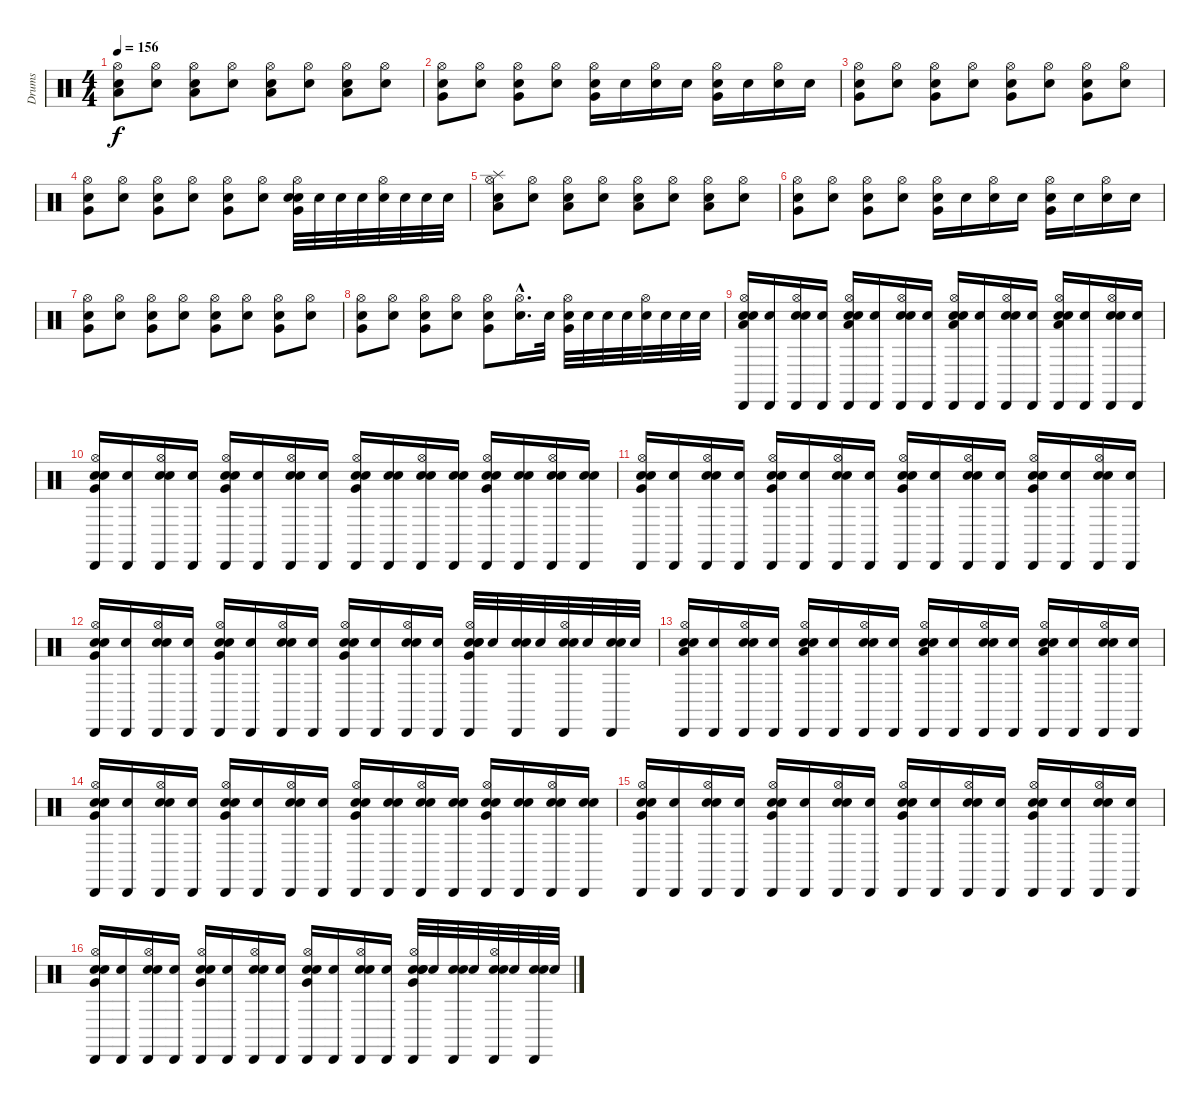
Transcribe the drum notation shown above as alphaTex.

\track ("Drums" "Drums") {instrument percussion}
\staff {score}
\articulation defaults
\ts (4 4)
\tempo 156
\clef neutral
\ks c
("Electric Snare (hit)" "Hi-Hat (open)" "Low Tom (hit)").8{dy f} ("Hi-Hat (open)" "Electric Snare (hit)").8 ("Electric Snare (hit)" "Hi-Hat (open)" "Low Tom (hit)").8 ("Hi-Hat (open)" "Electric Snare (hit)").8 ("Electric Snare (hit)" "Hi-Hat (open)" "Low Tom (hit)").8 ("Hi-Hat (open)" "Electric Snare (hit)").8 ("Electric Snare (hit)" "Hi-Hat (open)" "Low Tom (hit)").8 ("Hi-Hat (open)" "Electric Snare (hit)").8 |
("Very Low Tom (hit)" "Electric Snare (hit)" "Hi-Hat (open)").8 ("Electric Snare (hit)" "Hi-Hat (open)").8 ("Very Low Tom (hit)" "Electric Snare (hit)" "Hi-Hat (open)").8 ("Electric Snare (hit)" "Hi-Hat (open)").8 ("Very Low Tom (hit)" "Electric Snare (hit)" "Hi-Hat (open)").16 "Electric Snare (hit)".16 ("Electric Snare (hit)" "Hi-Hat (open)").16 "Electric Snare (hit)".16 ("Very Low Tom (hit)" "Electric Snare (hit)" "Hi-Hat (open)").16 "Electric Snare (hit)".16 ("Electric Snare (hit)" "Hi-Hat (open)").16 "Electric Snare (hit)".16 |
("Very Low Tom (hit)" "Electric Snare (hit)" "Hi-Hat (open)").8 ("Electric Snare (hit)" "Hi-Hat (open)").8 ("Very Low Tom (hit)" "Electric Snare (hit)" "Hi-Hat (open)").8 ("Electric Snare (hit)" "Hi-Hat (open)").8 ("Very Low Tom (hit)" "Electric Snare (hit)" "Hi-Hat (open)").8 ("Electric Snare (hit)" "Hi-Hat (open)").8 ("Very Low Tom (hit)" "Electric Snare (hit)" "Hi-Hat (open)").8 ("Electric Snare (hit)" "Hi-Hat (open)").8 |
("Very Low Tom (hit)" "Hi-Hat (open)" "Electric Snare (hit)").8 ("Hi-Hat (open)" "Electric Snare (hit)").8 ("Very Low Tom (hit)" "Hi-Hat (open)" "Electric Snare (hit)").8 ("Hi-Hat (open)" "Electric Snare (hit)").8 ("Very Low Tom (hit)" "Hi-Hat (open)" "Electric Snare (hit)").8 ("Hi-Hat (open)" "Electric Snare (hit)").8 ("Snare (hit) 2" "Very Low Tom (hit)" "Hi-Hat (open)" "Electric Snare (hit)").32 "Electric Snare (hit)".32 "Electric Snare (hit)".32 "Electric Snare (hit)".32 ("Hi-Hat (open)" "Electric Snare (hit)").32 "Electric Snare (hit)".32 "Electric Snare (hit)".32 "Electric Snare (hit)".32 |
("Splash (hit)" "Electric Snare (hit)" "Hi-Hat (open)" "Low Tom (hit)").8 ("Hi-Hat (open)" "Electric Snare (hit)").8 ("Electric Snare (hit)" "Hi-Hat (open)" "Low Tom (hit)").8 ("Hi-Hat (open)" "Electric Snare (hit)").8 ("Electric Snare (hit)" "Hi-Hat (open)" "Low Tom (hit)").8 ("Hi-Hat (open)" "Electric Snare (hit)").8 ("Electric Snare (hit)" "Hi-Hat (open)" "Low Tom (hit)").8 ("Hi-Hat (open)" "Electric Snare (hit)").8 |
("Very Low Tom (hit)" "Electric Snare (hit)" "Hi-Hat (open)").8 ("Electric Snare (hit)" "Hi-Hat (open)").8 ("Very Low Tom (hit)" "Electric Snare (hit)" "Hi-Hat (open)").8 ("Electric Snare (hit)" "Hi-Hat (open)").8 ("Very Low Tom (hit)" "Electric Snare (hit)" "Hi-Hat (open)").16 "Electric Snare (hit)".16 ("Electric Snare (hit)" "Hi-Hat (open)").16 "Electric Snare (hit)".16 ("Very Low Tom (hit)" "Electric Snare (hit)" "Hi-Hat (open)").16 "Electric Snare (hit)".16 ("Electric Snare (hit)" "Hi-Hat (open)").16 "Electric Snare (hit)".16 |
("Very Low Tom (hit)" "Electric Snare (hit)" "Hi-Hat (open)").8 ("Electric Snare (hit)" "Hi-Hat (open)").8 ("Very Low Tom (hit)" "Electric Snare (hit)" "Hi-Hat (open)").8 ("Electric Snare (hit)" "Hi-Hat (open)").8 ("Very Low Tom (hit)" "Electric Snare (hit)" "Hi-Hat (open)").8 ("Electric Snare (hit)" "Hi-Hat (open)").8 ("Very Low Tom (hit)" "Electric Snare (hit)" "Hi-Hat (open)").8 ("Electric Snare (hit)" "Hi-Hat (open)").8 |
("Very Low Tom (hit)" "Hi-Hat (open)" "Electric Snare (hit)").8 ("Hi-Hat (open)" "Electric Snare (hit)").8 ("Very Low Tom (hit)" "Hi-Hat (open)" "Electric Snare (hit)").8 ("Hi-Hat (open)" "Electric Snare (hit)").8 ("Very Low Tom (hit)" "Hi-Hat (open)" "Electric Snare (hit)").8 ("Hi-Hat (open)" "Electric Snare (hit)"{hac}).16{d} "Electric Snare (hit)".32 ("Very Low Tom (hit)" "Hi-Hat (open)" "Electric Snare (hit)").32 "Electric Snare (hit)".32 "Electric Snare (hit)".32 "Electric Snare (hit)".32 ("Hi-Hat (open)" "Electric Snare (hit)").32 "Electric Snare (hit)".32 "Electric Snare (hit)".32 "Electric Snare (hit)".32 |
("Electric Snare (hit)" "Hi-Hat (open)" "Low Tom (hit)" "Electric Snare (hit)" "Cabasa (hit)").16 ("Electric Snare (hit)" "Cabasa (hit)").16 ("Hi-Hat (open)" "Electric Snare (hit)" "Cabasa (hit)" "Electric Snare (hit)").16 ("Cabasa (hit)" "Electric Snare (hit)").16 ("Electric Snare (hit)" "Hi-Hat (open)" "Low Tom (hit)" "Cabasa (hit)" "Electric Snare (hit)").16 ("Cabasa (hit)" "Electric Snare (hit)").16 ("Hi-Hat (open)" "Electric Snare (hit)" "Cabasa (hit)" "Electric Snare (hit)").16 ("Cabasa (hit)" "Electric Snare (hit)").16 ("Electric Snare (hit)" "Hi-Hat (open)" "Low Tom (hit)" "Cabasa (hit)" "Electric Snare (hit)").16 ("Cabasa (hit)" "Electric Snare (hit)").16 ("Hi-Hat (open)" "Electric Snare (hit)" "Cabasa (hit)" "Electric Snare (hit)").16 ("Cabasa (hit)" "Electric Snare (hit)").16 ("Electric Snare (hit)" "Hi-Hat (open)" "Low Tom (hit)" "Cabasa (hit)" "Electric Snare (hit)").16 ("Cabasa (hit)" "Electric Snare (hit)").16 ("Hi-Hat (open)" "Electric Snare (hit)" "Cabasa (hit)" "Electric Snare (hit)").16 ("Cabasa (hit)" "Electric Snare (hit)").16 |
("Very Low Tom (hit)" "Electric Snare (hit)" "Hi-Hat (open)" "Electric Snare (hit)" "Cabasa (hit)").16 ("Electric Snare (hit)" "Cabasa (hit)").16 ("Electric Snare (hit)" "Hi-Hat (open)" "Cabasa (hit)" "Electric Snare (hit)").16 ("Cabasa (hit)" "Electric Snare (hit)").16 ("Very Low Tom (hit)" "Electric Snare (hit)" "Hi-Hat (open)" "Cabasa (hit)" "Electric Snare (hit)").16 ("Cabasa (hit)" "Electric Snare (hit)").16 ("Electric Snare (hit)" "Hi-Hat (open)" "Cabasa (hit)" "Electric Snare (hit)").16 ("Cabasa (hit)" "Electric Snare (hit)").16 ("Very Low Tom (hit)" "Electric Snare (hit)" "Hi-Hat (open)" "Cabasa (hit)" "Electric Snare (hit)").16 ("Electric Snare (hit)" "Cabasa (hit)" "Electric Snare (hit)").16 ("Electric Snare (hit)" "Hi-Hat (open)" "Cabasa (hit)" "Electric Snare (hit)").16 ("Electric Snare (hit)" "Cabasa (hit)" "Electric Snare (hit)").16 ("Very Low Tom (hit)" "Electric Snare (hit)" "Hi-Hat (open)" "Cabasa (hit)" "Electric Snare (hit)").16 ("Electric Snare (hit)" "Cabasa (hit)" "Electric Snare (hit)").16 ("Electric Snare (hit)" "Hi-Hat (open)" "Cabasa (hit)" "Electric Snare (hit)").16 ("Electric Snare (hit)" "Cabasa (hit)" "Electric Snare (hit)").16 |
("Very Low Tom (hit)" "Electric Snare (hit)" "Hi-Hat (open)" "Electric Snare (hit)" "Cabasa (hit)").16 ("Electric Snare (hit)" "Cabasa (hit)").16 ("Electric Snare (hit)" "Hi-Hat (open)" "Cabasa (hit)" "Electric Snare (hit)").16 ("Cabasa (hit)" "Electric Snare (hit)").16 ("Very Low Tom (hit)" "Electric Snare (hit)" "Hi-Hat (open)" "Cabasa (hit)" "Electric Snare (hit)").16 ("Cabasa (hit)" "Electric Snare (hit)").16 ("Electric Snare (hit)" "Hi-Hat (open)" "Cabasa (hit)" "Electric Snare (hit)").16 ("Cabasa (hit)" "Electric Snare (hit)").16 ("Very Low Tom (hit)" "Electric Snare (hit)" "Hi-Hat (open)" "Cabasa (hit)" "Electric Snare (hit)").16 ("Cabasa (hit)" "Electric Snare (hit)").16 ("Electric Snare (hit)" "Hi-Hat (open)" "Cabasa (hit)" "Electric Snare (hit)").16 ("Cabasa (hit)" "Electric Snare (hit)").16 ("Very Low Tom (hit)" "Electric Snare (hit)" "Hi-Hat (open)" "Cabasa (hit)" "Electric Snare (hit)").16 ("Cabasa (hit)" "Electric Snare (hit)").16 ("Electric Snare (hit)" "Hi-Hat (open)" "Cabasa (hit)" "Electric Snare (hit)").16 ("Cabasa (hit)" "Electric Snare (hit)").16 |
("Very Low Tom (hit)" "Hi-Hat (open)" "Electric Snare (hit)" "Electric Snare (hit)" "Cabasa (hit)").16 ("Electric Snare (hit)" "Cabasa (hit)").16 ("Hi-Hat (open)" "Electric Snare (hit)" "Cabasa (hit)" "Electric Snare (hit)").16 ("Cabasa (hit)" "Electric Snare (hit)").16 ("Very Low Tom (hit)" "Hi-Hat (open)" "Electric Snare (hit)" "Cabasa (hit)" "Electric Snare (hit)").16 ("Cabasa (hit)" "Electric Snare (hit)").16 ("Hi-Hat (open)" "Electric Snare (hit)" "Cabasa (hit)" "Electric Snare (hit)").16 ("Cabasa (hit)" "Electric Snare (hit)").16 ("Very Low Tom (hit)" "Hi-Hat (open)" "Electric Snare (hit)" "Cabasa (hit)" "Electric Snare (hit)").16 ("Cabasa (hit)" "Electric Snare (hit)").16 ("Hi-Hat (open)" "Electric Snare (hit)" "Cabasa (hit)" "Electric Snare (hit)").16 ("Cabasa (hit)" "Electric Snare (hit)").16 ("Snare (hit) 2" "Very Low Tom (hit)" "Hi-Hat (open)" "Electric Snare (hit)" "Cabasa (hit)" "Electric Snare (hit)").32 "Electric Snare (hit)".32 ("Electric Snare (hit)" "Cabasa (hit)" "Electric Snare (hit)").32 "Electric Snare (hit)".32 ("Hi-Hat (open)" "Electric Snare (hit)" "Cabasa (hit)" "Electric Snare (hit)").32 "Electric Snare (hit)".32 ("Electric Snare (hit)" "Cabasa (hit)" "Electric Snare (hit)").32 "Electric Snare (hit)".32 |
("Electric Snare (hit)" "Hi-Hat (open)" "Low Tom (hit)" "Electric Snare (hit)" "Cabasa (hit)").16 ("Electric Snare (hit)" "Cabasa (hit)").16 ("Hi-Hat (open)" "Electric Snare (hit)" "Cabasa (hit)" "Electric Snare (hit)").16 ("Cabasa (hit)" "Electric Snare (hit)").16 ("Electric Snare (hit)" "Hi-Hat (open)" "Low Tom (hit)" "Cabasa (hit)" "Electric Snare (hit)").16 ("Cabasa (hit)" "Electric Snare (hit)").16 ("Hi-Hat (open)" "Electric Snare (hit)" "Cabasa (hit)" "Electric Snare (hit)").16 ("Cabasa (hit)" "Electric Snare (hit)").16 ("Electric Snare (hit)" "Hi-Hat (open)" "Low Tom (hit)" "Cabasa (hit)" "Electric Snare (hit)").16 ("Cabasa (hit)" "Electric Snare (hit)").16 ("Hi-Hat (open)" "Electric Snare (hit)" "Cabasa (hit)" "Electric Snare (hit)").16 ("Cabasa (hit)" "Electric Snare (hit)").16 ("Electric Snare (hit)" "Hi-Hat (open)" "Low Tom (hit)" "Cabasa (hit)" "Electric Snare (hit)").16 ("Cabasa (hit)" "Electric Snare (hit)").16 ("Hi-Hat (open)" "Electric Snare (hit)" "Cabasa (hit)" "Electric Snare (hit)").16 ("Cabasa (hit)" "Electric Snare (hit)").16 |
("Very Low Tom (hit)" "Electric Snare (hit)" "Hi-Hat (open)" "Electric Snare (hit)" "Cabasa (hit)").16 ("Electric Snare (hit)" "Cabasa (hit)").16 ("Electric Snare (hit)" "Hi-Hat (open)" "Cabasa (hit)" "Electric Snare (hit)").16 ("Cabasa (hit)" "Electric Snare (hit)").16 ("Very Low Tom (hit)" "Electric Snare (hit)" "Hi-Hat (open)" "Cabasa (hit)" "Electric Snare (hit)").16 ("Cabasa (hit)" "Electric Snare (hit)").16 ("Electric Snare (hit)" "Hi-Hat (open)" "Cabasa (hit)" "Electric Snare (hit)").16 ("Cabasa (hit)" "Electric Snare (hit)").16 ("Very Low Tom (hit)" "Electric Snare (hit)" "Hi-Hat (open)" "Cabasa (hit)" "Electric Snare (hit)").16 ("Electric Snare (hit)" "Cabasa (hit)" "Electric Snare (hit)").16 ("Electric Snare (hit)" "Hi-Hat (open)" "Cabasa (hit)" "Electric Snare (hit)").16 ("Electric Snare (hit)" "Cabasa (hit)" "Electric Snare (hit)").16 ("Very Low Tom (hit)" "Electric Snare (hit)" "Hi-Hat (open)" "Cabasa (hit)" "Electric Snare (hit)").16 ("Electric Snare (hit)" "Cabasa (hit)" "Electric Snare (hit)").16 ("Electric Snare (hit)" "Hi-Hat (open)" "Cabasa (hit)" "Electric Snare (hit)").16 ("Electric Snare (hit)" "Cabasa (hit)" "Electric Snare (hit)").16 |
("Very Low Tom (hit)" "Electric Snare (hit)" "Hi-Hat (open)" "Electric Snare (hit)" "Cabasa (hit)").16 ("Electric Snare (hit)" "Cabasa (hit)").16 ("Electric Snare (hit)" "Hi-Hat (open)" "Cabasa (hit)" "Electric Snare (hit)").16 ("Cabasa (hit)" "Electric Snare (hit)").16 ("Very Low Tom (hit)" "Electric Snare (hit)" "Hi-Hat (open)" "Cabasa (hit)" "Electric Snare (hit)").16 ("Cabasa (hit)" "Electric Snare (hit)").16 ("Electric Snare (hit)" "Hi-Hat (open)" "Cabasa (hit)" "Electric Snare (hit)").16 ("Cabasa (hit)" "Electric Snare (hit)").16 ("Very Low Tom (hit)" "Electric Snare (hit)" "Hi-Hat (open)" "Cabasa (hit)" "Electric Snare (hit)").16 ("Cabasa (hit)" "Electric Snare (hit)").16 ("Electric Snare (hit)" "Hi-Hat (open)" "Cabasa (hit)" "Electric Snare (hit)").16 ("Cabasa (hit)" "Electric Snare (hit)").16 ("Very Low Tom (hit)" "Electric Snare (hit)" "Hi-Hat (open)" "Cabasa (hit)" "Electric Snare (hit)").16 ("Cabasa (hit)" "Electric Snare (hit)").16 ("Electric Snare (hit)" "Hi-Hat (open)" "Cabasa (hit)" "Electric Snare (hit)").16 ("Cabasa (hit)" "Electric Snare (hit)").16 |
("Very Low Tom (hit)" "Hi-Hat (open)" "Electric Snare (hit)" "Electric Snare (hit)" "Cabasa (hit)").16 ("Electric Snare (hit)" "Cabasa (hit)").16 ("Hi-Hat (open)" "Electric Snare (hit)" "Cabasa (hit)" "Electric Snare (hit)").16 ("Cabasa (hit)" "Electric Snare (hit)").16 ("Very Low Tom (hit)" "Hi-Hat (open)" "Electric Snare (hit)" "Cabasa (hit)" "Electric Snare (hit)").16 ("Cabasa (hit)" "Electric Snare (hit)").16 ("Hi-Hat (open)" "Electric Snare (hit)" "Cabasa (hit)" "Electric Snare (hit)").16 ("Cabasa (hit)" "Electric Snare (hit)").16 ("Very Low Tom (hit)" "Hi-Hat (open)" "Electric Snare (hit)" "Cabasa (hit)" "Electric Snare (hit)").16 ("Cabasa (hit)" "Electric Snare (hit)").16 ("Hi-Hat (open)" "Electric Snare (hit)" "Cabasa (hit)" "Electric Snare (hit)").16 ("Cabasa (hit)" "Electric Snare (hit)").16 ("Snare (hit) 2" "Very Low Tom (hit)" "Hi-Hat (open)" "Electric Snare (hit)" "Cabasa (hit)" "Electric Snare (hit)").32 "Electric Snare (hit)".32 ("Electric Snare (hit)" "Cabasa (hit)" "Electric Snare (hit)").32 "Electric Snare (hit)".32 ("Hi-Hat (open)" "Electric Snare (hit)" "Cabasa (hit)" "Electric Snare (hit)").32 "Electric Snare (hit)".32 ("Electric Snare (hit)" "Cabasa (hit)" "Electric Snare (hit)").32 "Electric Snare (hit)".32
